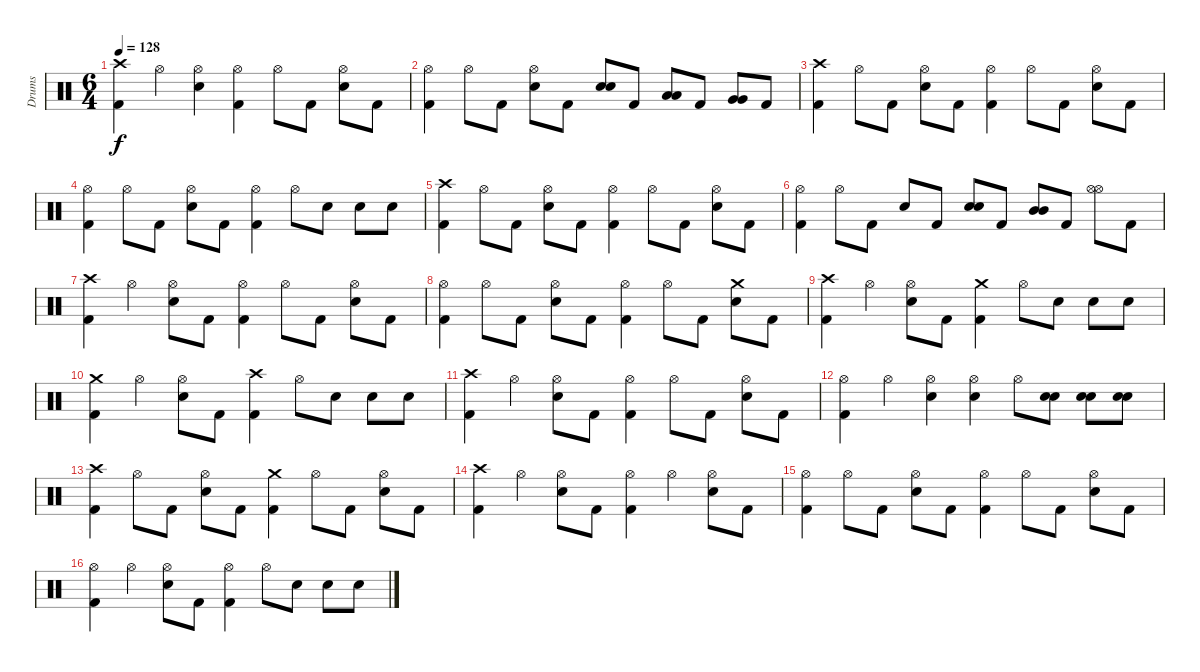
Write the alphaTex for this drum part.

\track ("Drums" "Drums") {instrument percussion}
\staff {score}
\articulation defaults
\ts (6 4)
\tempo 128
\clef neutral
\ks c
("Crash high (hit)" "Kick (hit) 2").4{dy f} "Hi-Hat (open)".4 ("Hi-Hat (open)" "Electric Snare (hit)").4 ("Hi-Hat (open)" "Kick (hit) 2").4 "Hi-Hat (open)".8 "Kick (hit) 2".8 ("Hi-Hat (open)" "Electric Snare (hit)").8 "Kick (hit) 2".8 |
("Hi-Hat (open)" "Kick (hit) 2").4 "Hi-Hat (open)".8 "Kick (hit) 2".8 ("Hi-Hat (open)" "Electric Snare (hit)").8 "Kick (hit) 2".8 ("Electric Snare (hit)" "Electric Snare (hit)").8{bu 480} "Kick (hit) 2".8 ("Low Tom (hit)" "Low Tom (hit)").8{bu 480} "Kick (hit) 2".8 ("Very Low Tom (hit)" "Very Low Tom (hit)").8{bu 480} "Kick (hit) 2".8 |
("Crash high (hit)" "Kick (hit) 2").4 "Hi-Hat (open)".8 "Kick (hit) 2".8 ("Hi-Hat (open)" "Electric Snare (hit)").8 "Kick (hit) 2".8 ("Hi-Hat (open)" "Kick (hit) 2").4 "Hi-Hat (open)".8 "Kick (hit) 2".8 ("Hi-Hat (open)" "Electric Snare (hit)").8 "Kick (hit) 2".8 |
("Hi-Hat (open)" "Kick (hit) 2").4 "Hi-Hat (open)".8 "Kick (hit) 2".8 ("Hi-Hat (open)" "Electric Snare (hit)").8 "Kick (hit) 2".8 ("Hi-Hat (open)" "Kick (hit) 2").4 "Hi-Hat (open)".8 "Electric Snare (hit)".8 "Electric Snare (hit)".8 "Electric Snare (hit)".8 |
("Crash high (hit)" "Kick (hit) 2").4 "Hi-Hat (open)".8 "Kick (hit) 2".8 ("Hi-Hat (open)" "Electric Snare (hit)").8 "Kick (hit) 2".8 ("Hi-Hat (open)" "Kick (hit) 2").4 "Hi-Hat (open)".8 "Kick (hit) 2".8 ("Hi-Hat (open)" "Electric Snare (hit)").8 "Kick (hit) 2".8 |
("Hi-Hat (open)" "Kick (hit) 2").4 "Hi-Hat (open)".8 "Kick (hit) 2".8 "Electric Snare (hit)".8 "Kick (hit) 2".8 ("Electric Snare (hit)" "Electric Snare (hit)").8{bu 120} "Kick (hit) 2".8 ("Mid Tom (hit)" "Mid Tom (hit)").8{bu 120} "Kick (hit) 2".8 ("Hi-Hat (open)" "Hi-Hat (open)").8{bu 120} "Kick (hit) 2".8 |
("Crash high (hit)" "Kick (hit) 2").4 "Hi-Hat (open)".4 ("Hi-Hat (open)" "Electric Snare (hit)").8 "Kick (hit) 2".8 ("Hi-Hat (open)" "Kick (hit) 2").4 "Hi-Hat (open)".8 "Kick (hit) 2".8 ("Hi-Hat (open)" "Electric Snare (hit)").8 "Kick (hit) 2".8 |
("Hi-Hat (open)" "Kick (hit) 2").4 "Hi-Hat (open)".8 "Kick (hit) 2".8 ("Hi-Hat (open)" "Electric Snare (hit)").8 "Kick (hit) 2".8 ("Hi-Hat (open)" "Kick (hit) 2").4 "Hi-Hat (open)".8 "Kick (hit) 2".8 ("Crash medium (hit)" "Electric Snare (hit)").8 "Kick (hit) 2".8 |
("Crash high (hit)" "Kick (hit) 2").4 "Hi-Hat (open)".4 ("Hi-Hat (open)" "Electric Snare (hit)").8 "Kick (hit) 2".8 ("Crash medium (hit)" "Kick (hit) 2").4 "Hi-Hat (open)".8 "Electric Snare (hit)".8 "Electric Snare (hit)".8 "Electric Snare (hit)".8 |
("Crash medium (hit)" "Kick (hit) 2").4 "Hi-Hat (open)".4 ("Hi-Hat (open)" "Electric Snare (hit)").8 "Kick (hit) 2".8 ("Crash high (hit)" "Kick (hit) 2").4 "Hi-Hat (open)".8 "Electric Snare (hit)".8 "Electric Snare (hit)".8 "Electric Snare (hit)".8 |
("Crash high (hit)" "Kick (hit) 2").4 "Hi-Hat (open)".4 ("Hi-Hat (open)" "Electric Snare (hit)").8 "Kick (hit) 2".8 ("Hi-Hat (open)" "Kick (hit) 2").4 "Hi-Hat (open)".8 "Kick (hit) 2".8 ("Hi-Hat (open)" "Electric Snare (hit)").8 "Kick (hit) 2".8 |
("Hi-Hat (open)" "Kick (hit) 2").4 "Hi-Hat (open)".4 ("Hi-Hat (open)" "Electric Snare (hit)").4 ("Hi-Hat (open)" "Electric Snare (hit)").4 "Hi-Hat (open)".8 ("Electric Snare (hit)" "Electric Snare (hit)").8{bu 60} ("Electric Snare (hit)" "Electric Snare (hit)").8{bu 60} ("Electric Snare (hit)" "Electric Snare (hit)").8{bu 60} |
("Crash high (hit)" "Kick (hit) 2").4 "Hi-Hat (open)".8 "Kick (hit) 2".8 ("Hi-Hat (open)" "Electric Snare (hit)").8 "Kick (hit) 2".8 ("Crash medium (hit)" "Kick (hit) 2").4 "Hi-Hat (open)".8 "Kick (hit) 2".8 ("Hi-Hat (open)" "Electric Snare (hit)").8 "Kick (hit) 2".8 |
("Crash high (hit)" "Kick (hit) 2").4 "Hi-Hat (open)".4 ("Hi-Hat (open)" "Electric Snare (hit)").8 "Kick (hit) 2".8 ("Hi-Hat (open)" "Kick (hit) 2").4 "Hi-Hat (open)".4 ("Hi-Hat (open)" "Electric Snare (hit)").8 "Kick (hit) 2".8 |
("Hi-Hat (open)" "Kick (hit) 2").4 "Hi-Hat (open)".8 "Kick (hit) 2".8 ("Hi-Hat (open)" "Electric Snare (hit)").8 "Kick (hit) 2".8 ("Hi-Hat (open)" "Kick (hit) 2").4 "Hi-Hat (open)".8 "Kick (hit) 2".8 ("Hi-Hat (open)" "Electric Snare (hit)").8 "Kick (hit) 2".8 |
("Hi-Hat (open)" "Kick (hit) 2").4 "Hi-Hat (open)".4 ("Hi-Hat (open)" "Electric Snare (hit)").8 "Kick (hit) 2".8 ("Hi-Hat (open)" "Kick (hit) 2").4 "Hi-Hat (open)".8 "Electric Snare (hit)".8 "Electric Snare (hit)".8 "Electric Snare (hit)".8
